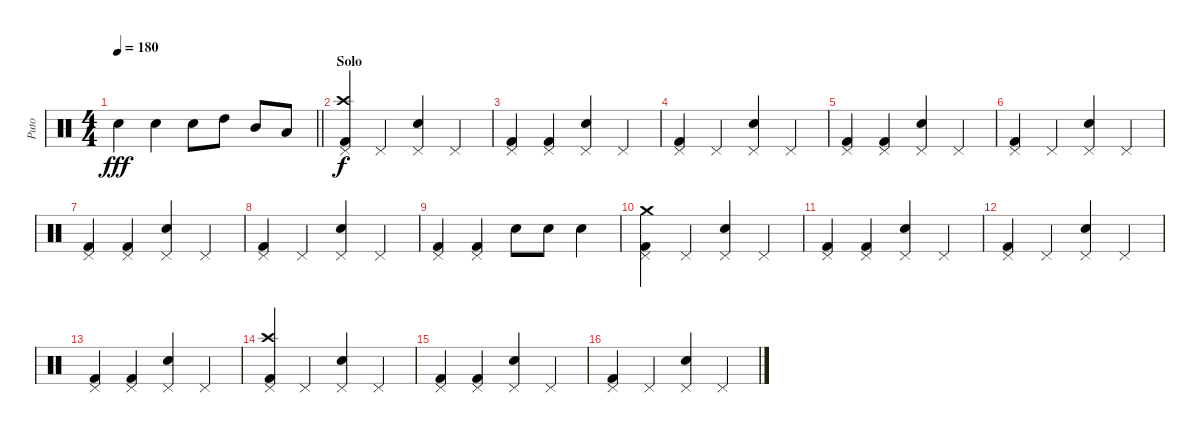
\track ("Puto" "Puto") {instrument percussion}
\staff {score}
\articulation defaults
\ts (4 4)
\tempo 180
\clef neutral
\barLineRight lightlight
\ks c "Snare (hit) 2".4{dy fff} "Snare (hit) 2".4 "Snare (hit) 2".8 "High Tom (hit)".8 "Mid Tom (hit)".8 "Low Tom (hit)".8
|
\section ("" "Solo")
("Kick (hit) 2" "Crash high (hit)" "Pedal Hi-Hat (hit)").4{dy f} "Pedal Hi-Hat (hit)".4 ("Snare (hit) 2" "Pedal Hi-Hat (hit)").4 "Pedal Hi-Hat (hit)".4 |
("Kick (hit) 2" "Pedal Hi-Hat (hit)").4 ("Kick (hit) 2" "Pedal Hi-Hat (hit)").4 ("Snare (hit) 2" "Pedal Hi-Hat (hit)").4 "Pedal Hi-Hat (hit)".4 |
("Kick (hit) 2" "Pedal Hi-Hat (hit)").4 "Pedal Hi-Hat (hit)".4 ("Snare (hit) 2" "Pedal Hi-Hat (hit)").4 "Pedal Hi-Hat (hit)".4 |
("Kick (hit) 2" "Pedal Hi-Hat (hit)").4 ("Kick (hit) 2" "Pedal Hi-Hat (hit)").4 ("Snare (hit) 2" "Pedal Hi-Hat (hit)").4 "Pedal Hi-Hat (hit)".4 |
("Kick (hit) 2" "Pedal Hi-Hat (hit)").4 "Pedal Hi-Hat (hit)".4 ("Snare (hit) 2" "Pedal Hi-Hat (hit)").4 "Pedal Hi-Hat (hit)".4 |
("Kick (hit) 2" "Pedal Hi-Hat (hit)").4 ("Kick (hit) 2" "Pedal Hi-Hat (hit)").4 ("Snare (hit) 2" "Pedal Hi-Hat (hit)").4 "Pedal Hi-Hat (hit)".4 |
("Kick (hit) 2" "Pedal Hi-Hat (hit)").4 "Pedal Hi-Hat (hit)".4 ("Snare (hit) 2" "Pedal Hi-Hat (hit)").4 "Pedal Hi-Hat (hit)".4 |
("Kick (hit) 2" "Pedal Hi-Hat (hit)").4 ("Kick (hit) 2" "Pedal Hi-Hat (hit)").4 "Snare (hit) 2".8 "Snare (hit) 2".8 "Snare (hit) 2".4 |
("Kick (hit) 2" "Crash medium (hit)" "Pedal Hi-Hat (hit)").4 "Pedal Hi-Hat (hit)".4 ("Snare (hit) 2" "Pedal Hi-Hat (hit)").4 "Pedal Hi-Hat (hit)".4 |
("Kick (hit) 2" "Pedal Hi-Hat (hit)").4 ("Kick (hit) 2" "Pedal Hi-Hat (hit)").4 ("Snare (hit) 2" "Pedal Hi-Hat (hit)").4 "Pedal Hi-Hat (hit)".4 |
("Kick (hit) 2" "Pedal Hi-Hat (hit)").4 "Pedal Hi-Hat (hit)".4 ("Snare (hit) 2" "Pedal Hi-Hat (hit)").4 "Pedal Hi-Hat (hit)".4 |
("Kick (hit) 2" "Pedal Hi-Hat (hit)").4 ("Kick (hit) 2" "Pedal Hi-Hat (hit)").4 ("Snare (hit) 2" "Pedal Hi-Hat (hit)").4 "Pedal Hi-Hat (hit)".4 |
("Kick (hit) 2" "Crash high (hit)" "Pedal Hi-Hat (hit)").4 "Pedal Hi-Hat (hit)".4 ("Snare (hit) 2" "Pedal Hi-Hat (hit)").4 "Pedal Hi-Hat (hit)".4 |
("Kick (hit) 2" "Pedal Hi-Hat (hit)").4 ("Kick (hit) 2" "Pedal Hi-Hat (hit)").4 ("Snare (hit) 2" "Pedal Hi-Hat (hit)").4 "Pedal Hi-Hat (hit)".4 |
("Kick (hit) 2" "Pedal Hi-Hat (hit)").4 "Pedal Hi-Hat (hit)".4 ("Snare (hit) 2" "Pedal Hi-Hat (hit)").4 "Pedal Hi-Hat (hit)".4
